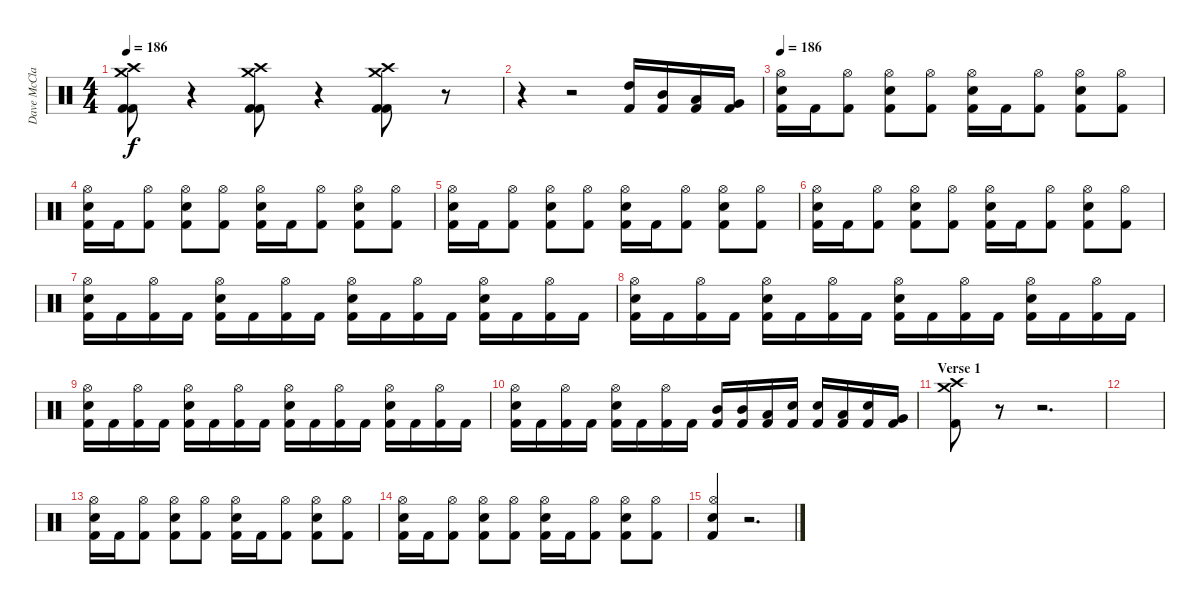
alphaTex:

\track ("Dave McClain" "Dave McCla") {instrument percussion}
\staff {score}
\articulation defaults
\ts (4 4)
\tempo 186
\clef neutral
\ks c
("Crash medium (hit)" "Crash high (hit)" "Kick (hit) 2" "Kick (hit) 2").8{dy f} r.4 ("Crash medium (hit)" "Crash high (hit)" "Kick (hit) 2" "Kick (hit) 2").8 r.4 ("Crash medium (hit)" "Crash high (hit)" "Kick (hit) 2" "Kick (hit) 2").8 r.8 |
r.4 r.2 ("High Tom (hit)" "Kick (hit) 2").16 ("Mid Tom (hit)" "Kick (hit) 2").16 ("Low Tom (hit)" "Kick (hit) 2").16 ("Very Low Tom (hit)" "Kick (hit) 2").16 |
\tempo 186
("Hi-Hat (open)" "Snare (hit) 2" "Kick (hit) 2").16 "Kick (hit) 2".16 ("Hi-Hat (open)" "Kick (hit) 2").8 ("Hi-Hat (open)" "Snare (hit) 2" "Kick (hit) 2").8 ("Hi-Hat (open)" "Kick (hit) 2").8 ("Hi-Hat (open)" "Snare (hit) 2" "Kick (hit) 2").16 "Kick (hit) 2".16 ("Hi-Hat (open)" "Kick (hit) 2").8 ("Hi-Hat (open)" "Snare (hit) 2" "Kick (hit) 2").8 ("Hi-Hat (open)" "Kick (hit) 2").8 |
("Hi-Hat (open)" "Snare (hit) 2" "Kick (hit) 2").16 "Kick (hit) 2".16 ("Hi-Hat (open)" "Kick (hit) 2").8 ("Hi-Hat (open)" "Snare (hit) 2" "Kick (hit) 2").8 ("Hi-Hat (open)" "Kick (hit) 2").8 ("Hi-Hat (open)" "Snare (hit) 2" "Kick (hit) 2").16 "Kick (hit) 2".16 ("Hi-Hat (open)" "Kick (hit) 2").8 ("Hi-Hat (open)" "Snare (hit) 2" "Kick (hit) 2").8 ("Hi-Hat (open)" "Kick (hit) 2").8 |
("Hi-Hat (open)" "Snare (hit) 2" "Kick (hit) 2").16 "Kick (hit) 2".16 ("Hi-Hat (open)" "Kick (hit) 2").8 ("Hi-Hat (open)" "Snare (hit) 2" "Kick (hit) 2").8 ("Hi-Hat (open)" "Kick (hit) 2").8 ("Hi-Hat (open)" "Snare (hit) 2" "Kick (hit) 2").16 "Kick (hit) 2".16 ("Hi-Hat (open)" "Kick (hit) 2").8 ("Hi-Hat (open)" "Snare (hit) 2" "Kick (hit) 2").8 ("Hi-Hat (open)" "Kick (hit) 2").8 |
("Hi-Hat (open)" "Snare (hit) 2" "Kick (hit) 2").16 "Kick (hit) 2".16 ("Hi-Hat (open)" "Kick (hit) 2").8 ("Hi-Hat (open)" "Snare (hit) 2" "Kick (hit) 2").8 ("Hi-Hat (open)" "Kick (hit) 2").8 ("Hi-Hat (open)" "Snare (hit) 2" "Kick (hit) 2").16 "Kick (hit) 2".16 ("Hi-Hat (open)" "Kick (hit) 2").8 ("Hi-Hat (open)" "Snare (hit) 2" "Kick (hit) 2").8 ("Hi-Hat (open)" "Kick (hit) 2").8 |
("Hi-Hat (open)" "Snare (hit) 2" "Kick (hit) 2").16 "Kick (hit) 2".16 ("Hi-Hat (open)" "Kick (hit) 2").16 "Kick (hit) 2".16 ("Hi-Hat (open)" "Snare (hit) 2" "Kick (hit) 2").16 "Kick (hit) 2".16 ("Hi-Hat (open)" "Kick (hit) 2").16 "Kick (hit) 2".16 ("Hi-Hat (open)" "Snare (hit) 2" "Kick (hit) 2").16 "Kick (hit) 2".16 ("Hi-Hat (open)" "Kick (hit) 2").16 "Kick (hit) 2".16 ("Hi-Hat (open)" "Snare (hit) 2" "Kick (hit) 2").16 "Kick (hit) 2".16 ("Hi-Hat (open)" "Kick (hit) 2").16 "Kick (hit) 2".16 |
("Hi-Hat (open)" "Snare (hit) 2" "Kick (hit) 2").16 "Kick (hit) 2".16 ("Hi-Hat (open)" "Kick (hit) 2").16 "Kick (hit) 2".16 ("Hi-Hat (open)" "Snare (hit) 2" "Kick (hit) 2").16 "Kick (hit) 2".16 ("Hi-Hat (open)" "Kick (hit) 2").16 "Kick (hit) 2".16 ("Hi-Hat (open)" "Snare (hit) 2" "Kick (hit) 2").16 "Kick (hit) 2".16 ("Hi-Hat (open)" "Kick (hit) 2").16 "Kick (hit) 2".16 ("Hi-Hat (open)" "Snare (hit) 2" "Kick (hit) 2").16 "Kick (hit) 2".16 ("Hi-Hat (open)" "Kick (hit) 2").16 "Kick (hit) 2".16 |
("Hi-Hat (open)" "Snare (hit) 2" "Kick (hit) 2").16 "Kick (hit) 2".16 ("Hi-Hat (open)" "Kick (hit) 2").16 "Kick (hit) 2".16 ("Hi-Hat (open)" "Snare (hit) 2" "Kick (hit) 2").16 "Kick (hit) 2".16 ("Hi-Hat (open)" "Kick (hit) 2").16 "Kick (hit) 2".16 ("Hi-Hat (open)" "Snare (hit) 2" "Kick (hit) 2").16 "Kick (hit) 2".16 ("Hi-Hat (open)" "Kick (hit) 2").16 "Kick (hit) 2".16 ("Hi-Hat (open)" "Snare (hit) 2" "Kick (hit) 2").16 "Kick (hit) 2".16 ("Hi-Hat (open)" "Kick (hit) 2").16 "Kick (hit) 2".16 |
("Hi-Hat (open)" "Snare (hit) 2" "Kick (hit) 2").16 "Kick (hit) 2".16 ("Hi-Hat (open)" "Kick (hit) 2").16 "Kick (hit) 2".16 ("Hi-Hat (open)" "Snare (hit) 2" "Kick (hit) 2").16 "Kick (hit) 2".16 ("Hi-Hat (open)" "Kick (hit) 2").16 "Kick (hit) 2".16 ("Mid Tom (hit)" "Kick (hit) 2").16 ("Mid Tom (hit)" "Kick (hit) 2").16 ("Low Tom (hit)" "Kick (hit) 2").16 ("Snare (hit) 2" "Kick (hit) 2").16 ("Snare (hit) 2" "Kick (hit) 2").16 ("Low Tom (hit)" "Kick (hit) 2").16 ("Snare (hit) 2" "Kick (hit) 2").16 ("Very Low Tom (hit)" "Kick (hit) 2").16 |
\section ("" "Verse 1")
("Crash medium (hit)" "Crash high (hit)" "Kick (hit) 2").8 r.8 r.2{d} |
|
("Hi-Hat (open)" "Snare (hit) 2" "Kick (hit) 2").16 "Kick (hit) 2".16 ("Hi-Hat (open)" "Kick (hit) 2").8 ("Hi-Hat (open)" "Snare (hit) 2" "Kick (hit) 2").8 ("Hi-Hat (open)" "Kick (hit) 2").8 ("Hi-Hat (open)" "Snare (hit) 2" "Kick (hit) 2").16 "Kick (hit) 2".16 ("Hi-Hat (open)" "Kick (hit) 2").8 ("Hi-Hat (open)" "Snare (hit) 2" "Kick (hit) 2").8 ("Hi-Hat (open)" "Kick (hit) 2").8 |
("Hi-Hat (open)" "Snare (hit) 2" "Kick (hit) 2").16 "Kick (hit) 2".16 ("Hi-Hat (open)" "Kick (hit) 2").8 ("Hi-Hat (open)" "Snare (hit) 2" "Kick (hit) 2").8 ("Hi-Hat (open)" "Kick (hit) 2").8 ("Hi-Hat (open)" "Snare (hit) 2" "Kick (hit) 2").16 "Kick (hit) 2".16 ("Hi-Hat (open)" "Kick (hit) 2").8 ("Hi-Hat (open)" "Snare (hit) 2" "Kick (hit) 2").8 ("Hi-Hat (open)" "Kick (hit) 2").8 |
("Hi-Hat (open)" "Snare (hit) 2" "Kick (hit) 2").4 r.2{d}
